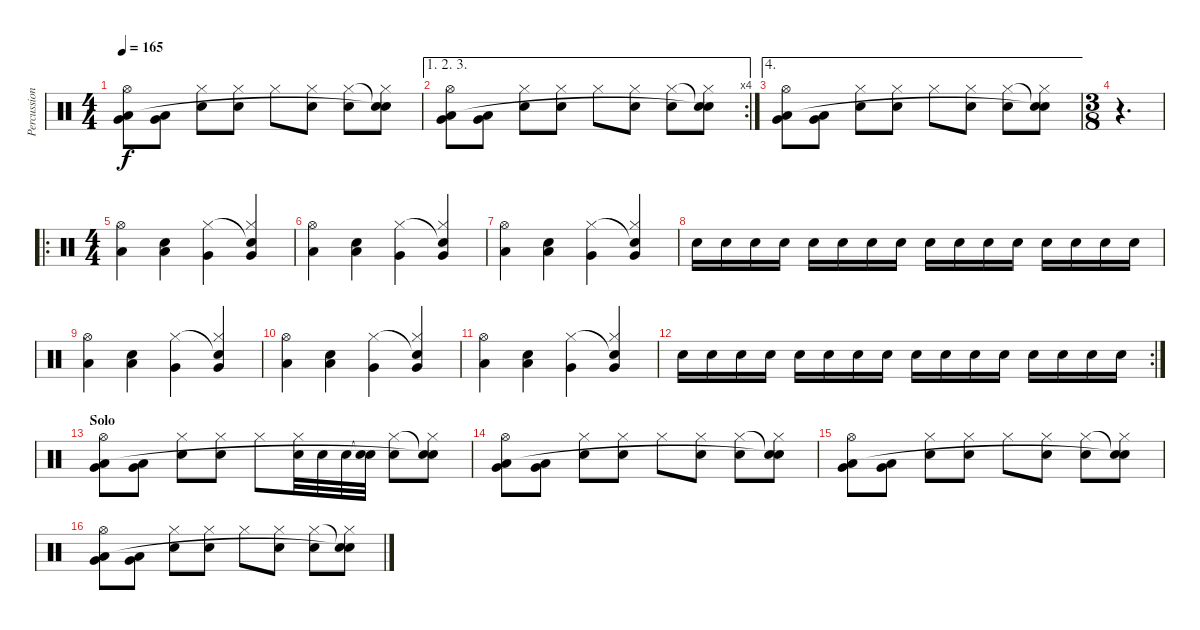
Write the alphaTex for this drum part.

\track ("Percussion" "Percussion") {instrument percussion}
\staff {score}
\articulation defaults
\ts (4 4)
\tempo 165
\clef neutral
\ks c
("Hi-Hat (open)" "Very Low Tom (hit)" "Low Tom (hit)").8{dy f} ("Very Low Tom (hit)" "Low Tom (hit)").8 ("Hi-Hat (closed)" "Electric Snare (hit)").8 ("Hi-Hat (closed)" "Snare (hit) 2").8 "Hi-Hat (closed)".8 ("Hi-Hat (closed)" "Electric Snare (hit)").8 ("Hi-Hat (closed)" "Snare (hit) 2").8 ("Snare (hit)"{t} "Hi-Hat (closed)" "Snare (hit)"{t}).8 |
\ae (1 2 3)
\rc 4
("Hi-Hat (open)" "Very Low Tom (hit)" "Low Tom (hit)").8 ("Very Low Tom (hit)" "Low Tom (hit)").8 ("Hi-Hat (closed)" "Electric Snare (hit)").8 ("Hi-Hat (closed)" "Snare (hit) 2").8 "Hi-Hat (closed)".8 ("Hi-Hat (closed)" "Electric Snare (hit)").8 ("Hi-Hat (closed)" "Snare (hit) 2").8 ("Snare (hit)"{t} "Hi-Hat (closed)" "Snare (hit)"{t}).8 |
\ae 4
("Hi-Hat (open)" "Very Low Tom (hit)" "Low Tom (hit)").8 ("Very Low Tom (hit)" "Low Tom (hit)").8 ("Hi-Hat (closed)" "Electric Snare (hit)").8 ("Hi-Hat (closed)" "Snare (hit) 2").8 "Hi-Hat (closed)".8 ("Hi-Hat (closed)" "Electric Snare (hit)").8 ("Hi-Hat (closed)" "Snare (hit) 2").8 ("Snare (hit)"{t} "Hi-Hat (closed)" "Snare (hit)"{t}).8 |
\ts (3 8)
r.4{d} |
\ro
\ts (4 4)
("Hi-Hat (open)" "Low Tom (hit)").4 ("Low Tom (hit)" "Snare (hit) 2").4 ("Hi-Hat (closed)" "Very Low Tom (hit)").4 ("Snare (hit)"{t} "Hi-Hat (closed)" "Very Low Tom (hit)").4 |
("Hi-Hat (open)" "Low Tom (hit)").4 ("Low Tom (hit)" "Snare (hit) 2").4 ("Hi-Hat (closed)" "Very Low Tom (hit)").4 ("Snare (hit)"{t} "Hi-Hat (closed)" "Very Low Tom (hit)").4 |
("Hi-Hat (open)" "Low Tom (hit)").4 ("Low Tom (hit)" "Snare (hit) 2").4 ("Hi-Hat (closed)" "Very Low Tom (hit)").4 ("Snare (hit)"{t} "Hi-Hat (closed)" "Very Low Tom (hit)").4 |
"Snare (hit) 2".16 "Snare (hit) 2".16 "Snare (hit) 2".16 "Snare (hit) 2".16 "Snare (hit) 2".16 "Snare (hit) 2".16 "Snare (hit) 2".16 "Snare (hit) 2".16 "Electric Snare (hit)".16 "Electric Snare (hit)".16 "Electric Snare (hit)".16 "Electric Snare (hit)".16 "Electric Snare (hit)".16 "Electric Snare (hit)".16 "Electric Snare (hit)".16 "Electric Snare (hit)".16 |
("Hi-Hat (open)" "Low Tom (hit)").4 ("Low Tom (hit)" "Snare (hit) 2").4 ("Hi-Hat (closed)" "Very Low Tom (hit)").4 ("Snare (hit)"{t} "Hi-Hat (closed)" "Very Low Tom (hit)").4 |
("Hi-Hat (open)" "Low Tom (hit)").4 ("Low Tom (hit)" "Snare (hit) 2").4 ("Hi-Hat (closed)" "Very Low Tom (hit)").4 ("Snare (hit)"{t} "Hi-Hat (closed)" "Very Low Tom (hit)").4 |
("Hi-Hat (open)" "Low Tom (hit)").4 ("Low Tom (hit)" "Snare (hit) 2").4 ("Hi-Hat (closed)" "Very Low Tom (hit)").4 ("Snare (hit)"{t} "Hi-Hat (closed)" "Very Low Tom (hit)").4 |
\rc 2 "Snare (hit) 2".16 "Snare (hit) 2".16 "Snare (hit) 2".16 "Snare (hit) 2".16 "Snare (hit) 2".16 "Snare (hit) 2".16 "Snare (hit) 2".16 "Snare (hit) 2".16 "Electric Snare (hit)".16 "Electric Snare (hit)".16 "Electric Snare (hit)".16 "Electric Snare (hit)".16 "Electric Snare (hit)".16 "Electric Snare (hit)".16 "Electric Snare (hit)".16 "Electric Snare (hit)".16
|
\section ("" "Solo")
("Hi-Hat (open)" "Very Low Tom (hit)" "Low Tom (hit)").8 ("Very Low Tom (hit)" "Low Tom (hit)").8 ("Hi-Hat (closed)" "Electric Snare (hit)").8 ("Hi-Hat (closed)" "Snare (hit) 2").8 "Hi-Hat (closed)".8 ("Hi-Hat (closed)" "Electric Snare (hit)").32 "Electric Snare (hit)".32 "Electric Snare (hit)".32 ("Snare (hit)"{t} "Electric Snare (hit)").32 ("Hi-Hat (closed)" "Snare (hit) 2").8 ("Snare (hit)"{t} "Hi-Hat (closed)" "Snare (hit)"{t}).8 |
("Hi-Hat (open)" "Very Low Tom (hit)" "Low Tom (hit)").8 ("Very Low Tom (hit)" "Low Tom (hit)").8 ("Hi-Hat (closed)" "Electric Snare (hit)").8 ("Hi-Hat (closed)" "Snare (hit) 2").8 "Hi-Hat (closed)".8 ("Hi-Hat (closed)" "Electric Snare (hit)").8 ("Hi-Hat (closed)" "Snare (hit) 2").8 ("Snare (hit)"{t} "Hi-Hat (closed)" "Snare (hit)"{t}).8 |
("Hi-Hat (open)" "Very Low Tom (hit)" "Low Tom (hit)").8 ("Very Low Tom (hit)" "Low Tom (hit)").8 ("Hi-Hat (closed)" "Electric Snare (hit)").8 ("Hi-Hat (closed)" "Snare (hit) 2").8 "Hi-Hat (closed)".8 ("Hi-Hat (closed)" "Electric Snare (hit)").8 ("Hi-Hat (closed)" "Snare (hit) 2").8 ("Snare (hit)"{t} "Hi-Hat (closed)" "Snare (hit)"{t}).8 |
("Hi-Hat (open)" "Very Low Tom (hit)" "Low Tom (hit)").8 ("Very Low Tom (hit)" "Low Tom (hit)").8 ("Hi-Hat (closed)" "Electric Snare (hit)").8 ("Hi-Hat (closed)" "Snare (hit) 2").8 "Hi-Hat (closed)".8 ("Hi-Hat (closed)" "Electric Snare (hit)").8 ("Hi-Hat (closed)" "Snare (hit) 2").8 ("Snare (hit)"{t} "Hi-Hat (closed)" "Snare (hit)"{t}).8
